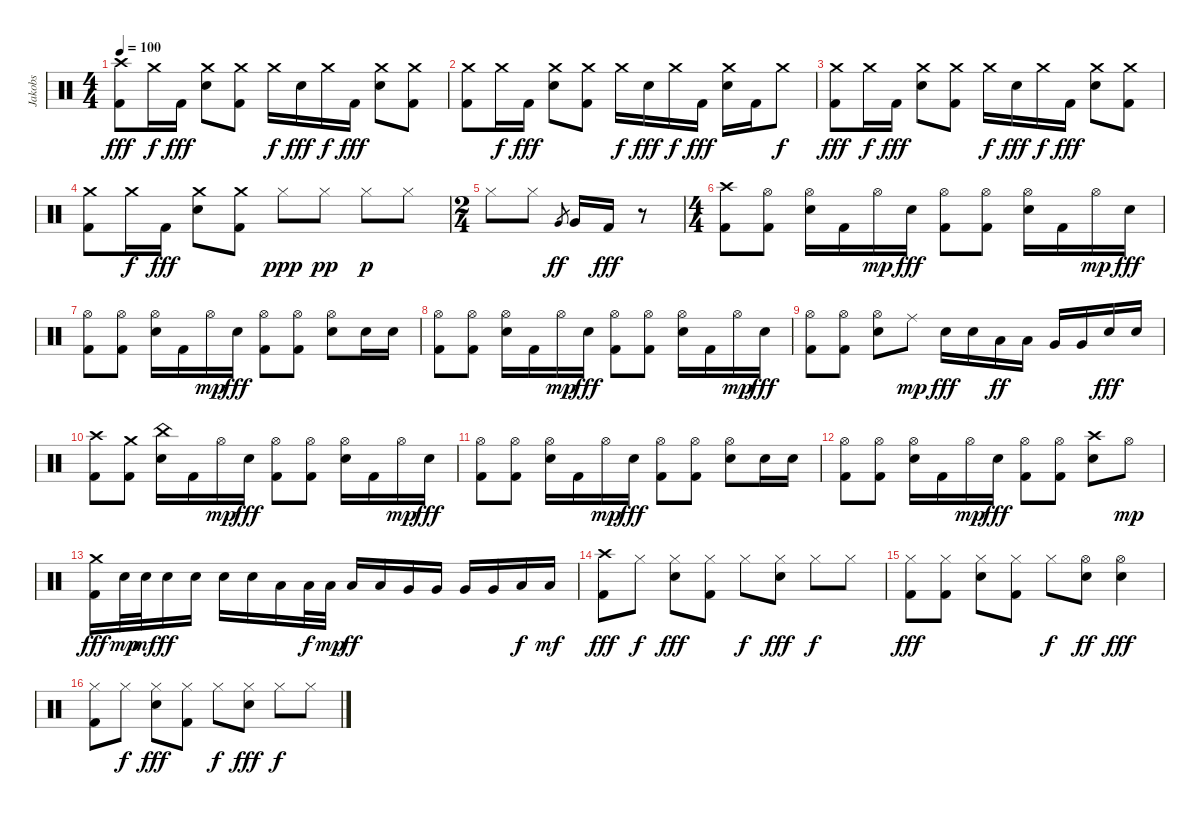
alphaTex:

\track ("Jakobs" "Jakobs") {instrument percussion}
\staff {score}
\articulation defaults
\ts (4 4)
\tempo 100
\clef neutral
\ks c
("Crash high (hit)" "Kick (hit) 2").8{dy fff} "Crash medium (hit)".16{dy f} "Kick (hit) 2".16{dy fff} ("Crash medium (hit)" "Snare (hit) 2").8 ("Crash medium (hit)" "Kick (hit) 2").8 "Crash medium (hit)".16{dy f} "Snare (hit) 2".16{dy fff} "Crash medium (hit)".16{dy f} "Kick (hit) 2".16{dy fff} ("Crash medium (hit)" "Snare (hit) 2").8 ("Crash medium (hit)" "Kick (hit) 2").8 |
("Crash medium (hit)" "Kick (hit) 2").8 "Crash medium (hit)".16{dy f} "Kick (hit) 2".16{dy fff} ("Crash medium (hit)" "Snare (hit) 2").8 ("Crash medium (hit)" "Kick (hit) 2").8 "Crash medium (hit)".16{dy f} "Snare (hit) 2".16{dy fff} "Crash medium (hit)".16{dy f} "Kick (hit) 2".16{dy fff} ("Crash medium (hit)" "Snare (hit) 2").16 "Kick (hit) 2".16 "Crash medium (hit)".8{dy f} |
("Crash medium (hit)" "Kick (hit) 2").8{dy fff} "Crash medium (hit)".16{dy f} "Kick (hit) 2".16{dy fff} ("Crash medium (hit)" "Snare (hit) 2").8 ("Crash medium (hit)" "Kick (hit) 2").8 "Crash medium (hit)".16{dy f} "Snare (hit) 2".16{dy fff} "Crash medium (hit)".16{dy f} "Kick (hit) 2".16{dy fff} ("Crash medium (hit)" "Snare (hit) 2").8 ("Crash medium (hit)" "Kick (hit) 2").8 |
("Crash medium (hit)" "Kick (hit) 2").8 "Crash medium (hit)".16{dy f} "Kick (hit) 2".16{dy fff} ("Crash medium (hit)" "Snare (hit) 2").8 ("Crash medium (hit)" "Kick (hit) 2").8 "Hi-Hat (closed)".8{dy ppp} "Hi-Hat (closed)".8{dy pp} "Hi-Hat (closed)".8{dy p} "Hi-Hat (closed)".8 |
\ts (2 4)
"Hi-Hat (closed)".8 "Hi-Hat (closed)".8 "Very Low Tom (hit)".8{gr dy ff} "Very Low Tom (hit)".16 "Kick (hit) 2".16{dy fff} r.8 |
\ts (4 4)
("Crash high (hit)" "Kick (hit) 2").8 ("Hi-Hat (open)" "Kick (hit) 2").8 ("Hi-Hat (open)" "Snare (hit) 2").16 "Kick (hit) 2".16 "Hi-Hat (open)".16{dy mp} "Snare (hit) 2".16{dy fff} ("Hi-Hat (open)" "Kick (hit) 2").8 ("Hi-Hat (open)" "Kick (hit) 2").8 ("Hi-Hat (open)" "Snare (hit) 2").16 "Kick (hit) 2".16 "Hi-Hat (open)".16{dy mp} "Snare (hit) 2".16{dy fff} |
("Hi-Hat (open)" "Kick (hit) 2").8 ("Hi-Hat (open)" "Kick (hit) 2").8 ("Hi-Hat (open)" "Snare (hit) 2").16 "Kick (hit) 2".16 "Hi-Hat (open)".16{dy mp} "Snare (hit) 2".16{dy fff} ("Hi-Hat (open)" "Kick (hit) 2").8 ("Hi-Hat (open)" "Kick (hit) 2").8 ("Hi-Hat (open)" "Snare (hit) 2").8 "Snare (hit) 2".16 "Snare (hit) 2".16 |
("Hi-Hat (open)" "Kick (hit) 2").8 ("Hi-Hat (open)" "Kick (hit) 2").8 ("Hi-Hat (open)" "Snare (hit) 2").16 "Kick (hit) 2".16 "Hi-Hat (open)".16{dy mp} "Snare (hit) 2".16{dy fff} ("Hi-Hat (open)" "Kick (hit) 2").8 ("Hi-Hat (open)" "Kick (hit) 2").8 ("Hi-Hat (open)" "Snare (hit) 2").16 "Kick (hit) 2".16 "Hi-Hat (open)".16{dy mp} "Snare (hit) 2".16{dy fff} |
("Hi-Hat (open)" "Kick (hit) 2").8 ("Hi-Hat (open)" "Kick (hit) 2").8 ("Hi-Hat (open)" "Snare (hit) 2").8 "Ride (middle)".8{dy mp} "Snare (hit) 2".16{dy fff} "Snare (hit) 2".16 "Low Tom (hit)".16{dy ff} "Low Tom (hit)".16 "Very Low Tom (hit)".16 "Very Low Tom (hit)".16 "Snare (hit) 2".16{dy fff} "Snare (hit) 2".16 |
("Crash high (hit)" "Kick (hit) 2").8 ("Crash medium (hit)" "Kick (hit) 2").8 ("China (hit)" "Snare (hit) 2").16 "Kick (hit) 2".16 "Hi-Hat (open)".16{dy mp} "Snare (hit) 2".16{dy fff} ("Hi-Hat (open)" "Kick (hit) 2").8 ("Hi-Hat (open)" "Kick (hit) 2").8 ("Hi-Hat (open)" "Snare (hit) 2").16 "Kick (hit) 2".16 "Hi-Hat (open)".16{dy mp} "Snare (hit) 2".16{dy fff} |
("Hi-Hat (open)" "Kick (hit) 2").8 ("Hi-Hat (open)" "Kick (hit) 2").8 ("Hi-Hat (open)" "Snare (hit) 2").16 "Kick (hit) 2".16 "Hi-Hat (open)".16{dy mp} "Snare (hit) 2".16{dy fff} ("Hi-Hat (open)" "Kick (hit) 2").8 ("Hi-Hat (open)" "Kick (hit) 2").8 ("Hi-Hat (open)" "Snare (hit) 2").8 "Snare (hit) 2".16 "Snare (hit) 2".16 |
("Hi-Hat (open)" "Kick (hit) 2").8 ("Hi-Hat (open)" "Kick (hit) 2").8 ("Hi-Hat (open)" "Snare (hit) 2").16 "Kick (hit) 2".16 "Hi-Hat (open)".16{dy mp} "Snare (hit) 2".16{dy fff} ("Hi-Hat (open)" "Kick (hit) 2").8 ("Hi-Hat (open)" "Kick (hit) 2").8 ("Crash high (hit)" "Snare (hit) 2").8 "Hi-Hat (open)".8{dy mp} |
("Crash medium (hit)" "Kick (hit) 2").16{dy fff} "Snare (hit) 2".32{dy mp} "Snare (hit) 2".32{dy mf} "Snare (hit) 2".16{dy ff} "Snare (hit) 2".16 "Snare (hit) 2".16 "Snare (hit) 2".16 "Low Tom (hit)".16 "Low Tom (hit)".32{dy f} "Low Tom (hit)".32{dy mp} "Low Tom (hit)".16{dy ff} "Low Tom (hit)".16 "Very Low Tom (hit)".16 "Very Low Tom (hit)".16 "Very Low Tom (hit)".16 "Very Low Tom (hit)".16 "Low Floor Tom (hit)".16{dy f} "Low Floor Tom (hit)".16{dy mf} |
("Crash high (hit)" "Kick (hit) 2").8{dy fff} "Hi-Hat (closed)".8{dy f} ("Hi-Hat (closed)" "Snare (hit) 2").8{dy fff} ("Hi-Hat (closed)" "Kick (hit) 2").8 "Hi-Hat (closed)".8{dy f} ("Hi-Hat (closed)" "Snare (hit) 2").8{dy fff} "Hi-Hat (closed)".8{dy f} "Hi-Hat (closed)".8 |
("Hi-Hat (closed)" "Kick (hit) 2").8{dy fff} ("Hi-Hat (closed)" "Kick (hit) 2").8 ("Hi-Hat (closed)" "Snare (hit) 2").8 ("Hi-Hat (closed)" "Kick (hit) 2").8 "Hi-Hat (closed)".8{dy f} ("Hi-Hat (open)" "Snare (hit) 2").8{dy ff} ("Hi-Hat (open)" "Snare (hit) 2").4{dy fff} |
("Hi-Hat (closed)" "Kick (hit) 2").8 "Hi-Hat (closed)".8{dy f} ("Hi-Hat (closed)" "Snare (hit) 2").8{dy fff} ("Hi-Hat (closed)" "Kick (hit) 2").8 "Hi-Hat (closed)".8{dy f} ("Hi-Hat (closed)" "Snare (hit) 2").8{dy fff} "Hi-Hat (closed)".8{dy f} "Hi-Hat (closed)".8
